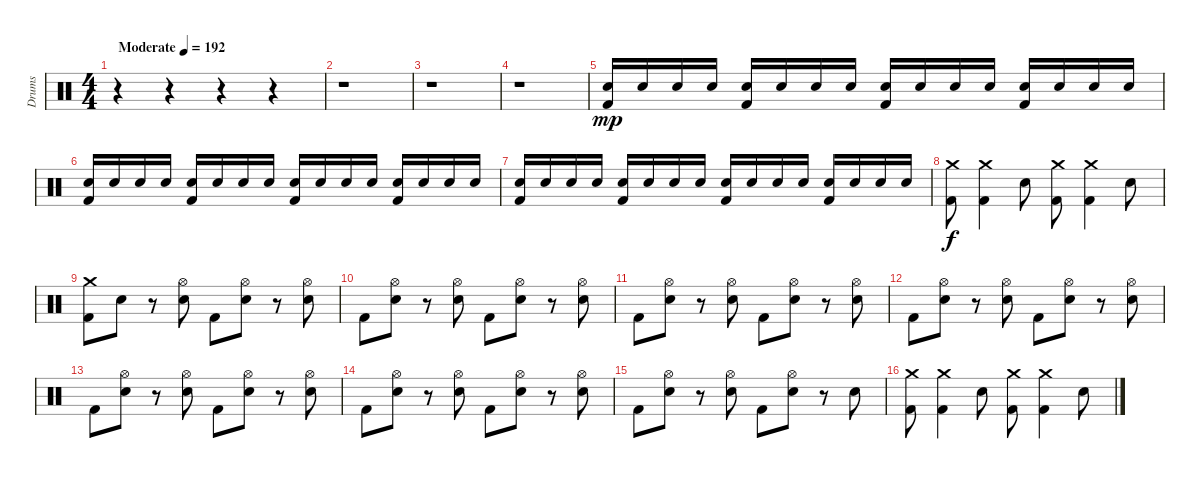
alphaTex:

\track ("Drums" "Drums") {instrument percussion}
\staff
\articulation defaults
\ts (4 4)
\tempo (192 "Moderate")
\clef neutral
\ks c
r.4{dy mp} r.4 r.4 r.4 |
r.1 |
r.1 |
r.1 |
("Snare (hit) 2" "Kick (hit) 2").16 "Snare (hit) 2".16 "Snare (hit) 2".16 "Snare (hit) 2".16 ("Snare (hit) 2" "Kick (hit) 2").16 "Snare (hit) 2".16 "Snare (hit) 2".16 "Snare (hit) 2".16 ("Snare (hit) 2" "Kick (hit) 2").16 "Snare (hit) 2".16 "Snare (hit) 2".16 "Snare (hit) 2".16 ("Snare (hit) 2" "Kick (hit) 2").16 "Snare (hit) 2".16 "Snare (hit) 2".16 "Snare (hit) 2".16 |
("Snare (hit) 2" "Kick (hit) 2").16 "Snare (hit) 2".16 "Snare (hit) 2".16 "Snare (hit) 2".16 ("Snare (hit) 2" "Kick (hit) 2").16 "Snare (hit) 2".16 "Snare (hit) 2".16 "Snare (hit) 2".16 ("Snare (hit) 2" "Kick (hit) 2").16 "Snare (hit) 2".16 "Snare (hit) 2".16 "Snare (hit) 2".16 ("Snare (hit) 2" "Kick (hit) 2").16 "Snare (hit) 2".16 "Snare (hit) 2".16 "Snare (hit) 2".16 |
("Snare (hit) 2" "Kick (hit) 2").16 "Snare (hit) 2".16 "Snare (hit) 2".16 "Snare (hit) 2".16 ("Snare (hit) 2" "Kick (hit) 2").16 "Snare (hit) 2".16 "Snare (hit) 2".16 "Snare (hit) 2".16 ("Snare (hit) 2" "Kick (hit) 2").16 "Snare (hit) 2".16 "Snare (hit) 2".16 "Snare (hit) 2".16 ("Snare (hit) 2" "Kick (hit) 2").16 "Snare (hit) 2".16 "Snare (hit) 2".16 "Snare (hit) 2".16 |
("Crash medium (hit)" "Kick (hit) 2").8{dy f} ("Crash medium (hit)" "Kick (hit) 2").4 "Snare (hit) 2".8 ("Crash medium (hit)" "Kick (hit) 2").8 ("Crash medium (hit)" "Kick (hit) 2").4 "Snare (hit) 2".8 |
("Crash medium (hit)" "Kick (hit) 2").8 "Snare (hit) 2".8 r.8 ("Hi-Hat (open)" "Snare (hit) 2").8 "Kick (hit) 2".8 ("Hi-Hat (open)" "Snare (hit) 2").8 r.8 ("Hi-Hat (open)" "Snare (hit) 2").8 |
"Kick (hit) 2".8 ("Hi-Hat (open)" "Snare (hit) 2").8 r.8 ("Hi-Hat (open)" "Snare (hit) 2").8 "Kick (hit) 2".8 ("Hi-Hat (open)" "Snare (hit) 2").8 r.8 ("Hi-Hat (open)" "Snare (hit) 2").8 |
"Kick (hit) 2".8 ("Hi-Hat (open)" "Snare (hit) 2").8 r.8 ("Hi-Hat (open)" "Snare (hit) 2").8 "Kick (hit) 2".8 ("Hi-Hat (open)" "Snare (hit) 2").8 r.8 ("Hi-Hat (open)" "Snare (hit) 2").8 |
"Kick (hit) 2".8 ("Hi-Hat (open)" "Snare (hit) 2").8 r.8 ("Hi-Hat (open)" "Snare (hit) 2").8 "Kick (hit) 2".8 ("Hi-Hat (open)" "Snare (hit) 2").8 r.8 ("Hi-Hat (open)" "Snare (hit) 2").8 |
"Kick (hit) 2".8 ("Hi-Hat (open)" "Snare (hit) 2").8 r.8 ("Hi-Hat (open)" "Snare (hit) 2").8 "Kick (hit) 2".8 ("Hi-Hat (open)" "Snare (hit) 2").8 r.8 ("Hi-Hat (open)" "Snare (hit) 2").8 |
"Kick (hit) 2".8 ("Hi-Hat (open)" "Snare (hit) 2").8 r.8 ("Hi-Hat (open)" "Snare (hit) 2").8 "Kick (hit) 2".8 ("Hi-Hat (open)" "Snare (hit) 2").8 r.8 ("Hi-Hat (open)" "Snare (hit) 2").8 |
"Kick (hit) 2".8 ("Hi-Hat (open)" "Snare (hit) 2").8 r.8 ("Hi-Hat (open)" "Snare (hit) 2").8 "Kick (hit) 2".8 ("Hi-Hat (open)" "Snare (hit) 2").8 r.8 "Snare (hit) 2".8 |
("Crash medium (hit)" "Kick (hit) 2").8 ("Crash medium (hit)" "Kick (hit) 2").4 "Snare (hit) 2".8 ("Crash medium (hit)" "Kick (hit) 2").8 ("Crash medium (hit)" "Kick (hit) 2").4 "Snare (hit) 2".8
